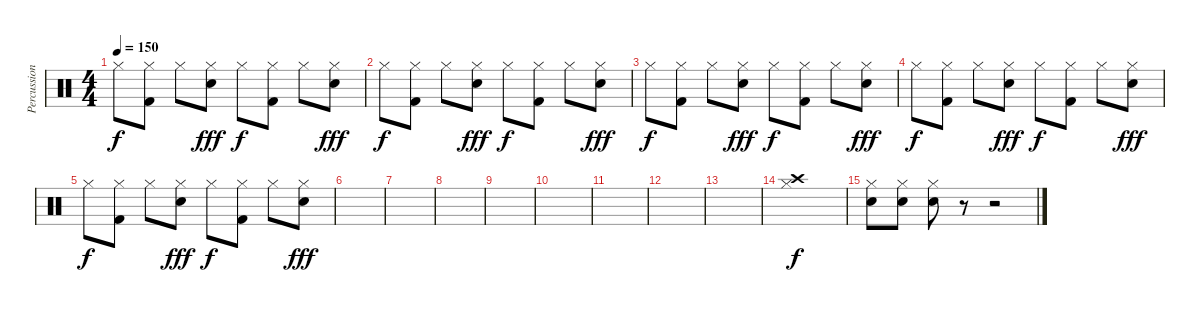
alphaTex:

\track ("Percussion" "Percussion") {instrument percussion}
\staff {score}
\articulation defaults
\ts (4 4)
\tempo 150
\clef neutral
\ks c "Hi-Hat (closed)".8{dy f}
("Hi-Hat (closed)" "Kick (hit) 2").8 "Hi-Hat (closed)".8 ("Hi-Hat (closed)" "Electric Snare (hit)").8{dy fff} "Hi-Hat (closed)".8{dy f} ("Hi-Hat (closed)" "Kick (hit) 2").8 "Hi-Hat (closed)".8 ("Hi-Hat (closed)" "Electric Snare (hit)").8{dy fff} |
"Hi-Hat (closed)".8{dy f} ("Hi-Hat (closed)" "Kick (hit) 2").8 "Hi-Hat (closed)".8 ("Hi-Hat (closed)" "Electric Snare (hit)").8{dy fff} "Hi-Hat (closed)".8{dy f} ("Hi-Hat (closed)" "Kick (hit) 2").8 "Hi-Hat (closed)".8 ("Hi-Hat (closed)" "Electric Snare (hit)").8{dy fff} |
"Hi-Hat (closed)".8{dy f} ("Hi-Hat (closed)" "Kick (hit) 2").8 "Hi-Hat (closed)".8 ("Hi-Hat (closed)" "Electric Snare (hit)").8{dy fff} "Hi-Hat (closed)".8{dy f} ("Hi-Hat (closed)" "Kick (hit) 2").8 "Hi-Hat (closed)".8 ("Hi-Hat (closed)" "Electric Snare (hit)").8{dy fff} |
"Hi-Hat (closed)".8{dy f} ("Hi-Hat (closed)" "Kick (hit) 2").8 "Hi-Hat (closed)".8 ("Hi-Hat (closed)" "Electric Snare (hit)").8{dy fff} "Hi-Hat (closed)".8{dy f} ("Hi-Hat (closed)" "Kick (hit) 2").8 "Hi-Hat (closed)".8 ("Hi-Hat (closed)" "Electric Snare (hit)").8{dy fff} |
"Hi-Hat (closed)".8{dy f} ("Hi-Hat (closed)" "Kick (hit) 2").8 "Hi-Hat (closed)".8 ("Hi-Hat (closed)" "Electric Snare (hit)").8{dy fff} "Hi-Hat (closed)".8{dy f} ("Hi-Hat (closed)" "Kick (hit) 2").8 "Hi-Hat (closed)".8 ("Hi-Hat (closed)" "Electric Snare (hit)").8{dy fff} |
|
|
|
|
|
|
|
|
("Hi-Hat (closed)" "Crash high (hit)").1{dy f} |
("Electric Snare (hit)" "Hi-Hat (closed)").8 ("Electric Snare (hit)" "Hi-Hat (closed)").8 ("Electric Snare (hit)" "Hi-Hat (closed)").8 r.8 r.2
